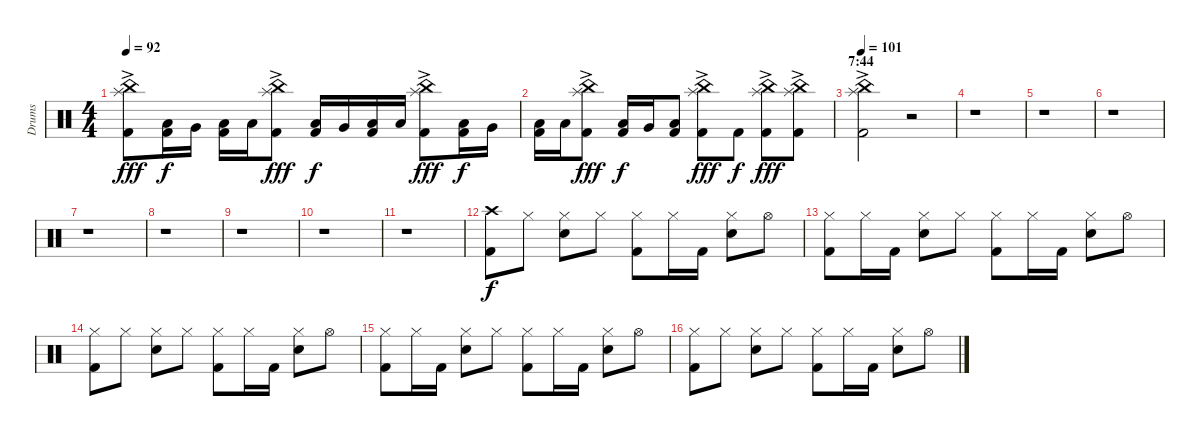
\track ("Drums" "Drums") {instrument percussion}
\staff {score}
\articulation defaults
\ts (4 4)
\tempo 92
\clef neutral
\ks c
("China (hit)" "Splash (hit)"{ac} "Kick (hit) 2").8{dy fff} ("Low Floor Tom (hit)" "Kick (hit) 2").16{dy f} "Very Low Tom (hit)".16 ("Low Floor Tom (hit)" "Kick (hit) 2").16 "Low Floor Tom (hit)".16 ("China (hit)" "Splash (hit)"{ac} "Kick (hit) 2").8{dy fff} ("Low Floor Tom (hit)" "Kick (hit) 2").16{dy f} "Very Low Tom (hit)".16 ("Low Floor Tom (hit)" "Kick (hit) 2").16 "Low Floor Tom (hit)".16 ("China (hit)" "Splash (hit)"{ac} "Kick (hit) 2").8{dy fff} ("Low Floor Tom (hit)" "Kick (hit) 2").16{dy f} "Very Low Tom (hit)".16 |
("Low Floor Tom (hit)" "Kick (hit) 2").16 "Low Floor Tom (hit)".16 ("China (hit)" "Splash (hit)"{ac} "Kick (hit) 2").8{dy fff} ("Low Floor Tom (hit)" "Kick (hit) 2").16{dy f} "Very Low Tom (hit)".16 ("Low Floor Tom (hit)" "Kick (hit) 2").8 ("China (hit)" "Splash (hit)"{ac} "Kick (hit) 2").8{dy fff} "Kick (hit) 2".8{dy f} ("China (hit)" "Splash (hit)"{ac} "Kick (hit) 2").8{dy fff} ("China (hit)" "Splash (hit)"{ac} "Kick (hit) 2").8 |
\section ("" "7:44")
\tempo 101
("China (hit)" "Splash (hit)"{ac} "Kick (hit) 2").2 r.2 |
r.1 |
r.1 |
r.1 |
r.1 |
r.1 |
r.1 |
r.1 |
r.1 |
("Crash high (hit)" "Kick (hit) 2").8{dy f} "Hi-Hat (closed)".8 ("Hi-Hat (closed)" "Snare (hit) 2").8 "Hi-Hat (closed)".8 ("Hi-Hat (closed)" "Kick (hit) 2").8 "Hi-Hat (closed)".16 "Kick (hit) 2".16 ("Hi-Hat (closed)" "Snare (hit) 2").8 "Hi-Hat (open)".8 |
("Hi-Hat (closed)" "Kick (hit) 2").8 "Hi-Hat (closed)".16 "Kick (hit) 2".16 ("Hi-Hat (closed)" "Snare (hit) 2").8 "Hi-Hat (closed)".8 ("Hi-Hat (closed)" "Kick (hit) 2").8 "Hi-Hat (closed)".16 "Kick (hit) 2".16 ("Hi-Hat (closed)" "Snare (hit) 2").8 "Hi-Hat (open)".8 |
("Hi-Hat (closed)" "Kick (hit) 2").8 "Hi-Hat (closed)".8 ("Hi-Hat (closed)" "Snare (hit) 2").8 "Hi-Hat (closed)".8 ("Hi-Hat (closed)" "Kick (hit) 2").8 "Hi-Hat (closed)".16 "Kick (hit) 2".16 ("Hi-Hat (closed)" "Snare (hit) 2").8 "Hi-Hat (open)".8 |
("Hi-Hat (closed)" "Kick (hit) 2").8 "Hi-Hat (closed)".16 "Kick (hit) 2".16 ("Hi-Hat (closed)" "Snare (hit) 2").8 "Hi-Hat (closed)".8 ("Hi-Hat (closed)" "Kick (hit) 2").8 "Hi-Hat (closed)".16 "Kick (hit) 2".16 ("Hi-Hat (closed)" "Snare (hit) 2").8 "Hi-Hat (open)".8 |
("Hi-Hat (closed)" "Kick (hit) 2").8 "Hi-Hat (closed)".8 ("Hi-Hat (closed)" "Snare (hit) 2").8 "Hi-Hat (closed)".8 ("Hi-Hat (closed)" "Kick (hit) 2").8 "Hi-Hat (closed)".16 "Kick (hit) 2".16 ("Hi-Hat (closed)" "Snare (hit) 2").8 "Hi-Hat (open)".8
